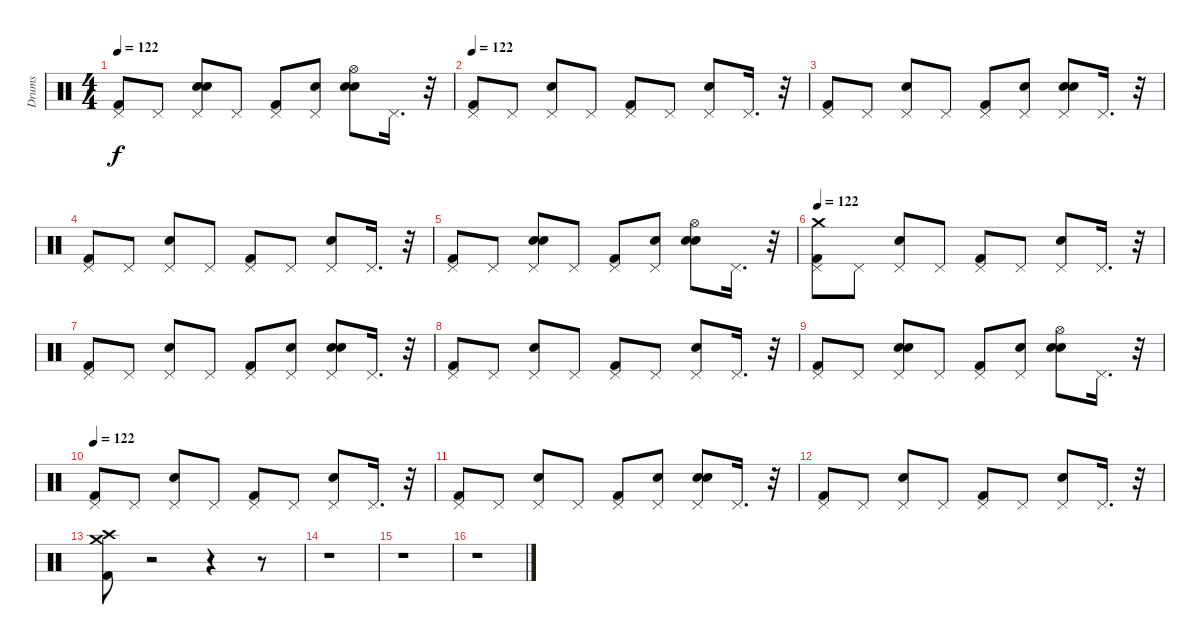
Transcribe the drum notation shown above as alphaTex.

\track ("Drums" "Drums") {instrument percussion}
\staff {score}
\articulation defaults
\ts (4 4)
\tempo 122
\clef neutral
\ks c
("Kick (hit) 2" "Pedal Hi-Hat (hit)").8{dy f} "Pedal Hi-Hat (hit)".8 ("Snare (hit) 2" "Hand Clap (hit)" "Pedal Hi-Hat (hit)").8 "Pedal Hi-Hat (hit)".8 ("Kick (hit) 2" "Pedal Hi-Hat (hit)").8 ("Hand Clap (hit)" "Pedal Hi-Hat (hit)").8 ("Hand Clap (hit)" "Snare (hit) 2" "Hi-Hat (open)").8 "Pedal Hi-Hat (hit)".16{d} r.32 |
\tempo 122
("Kick (hit) 2" "Pedal Hi-Hat (hit)").8 "Pedal Hi-Hat (hit)".8 ("Snare (hit) 2" "Pedal Hi-Hat (hit)").8 "Pedal Hi-Hat (hit)".8 ("Kick (hit) 2" "Pedal Hi-Hat (hit)").8 "Pedal Hi-Hat (hit)".8 ("Snare (hit) 2" "Pedal Hi-Hat (hit)").8 "Pedal Hi-Hat (hit)".16{d} r.32 |
("Kick (hit) 2" "Pedal Hi-Hat (hit)").8 "Pedal Hi-Hat (hit)".8 ("Snare (hit) 2" "Pedal Hi-Hat (hit)").8 "Pedal Hi-Hat (hit)".8 ("Kick (hit) 2" "Pedal Hi-Hat (hit)").8 ("Hand Clap (hit)" "Pedal Hi-Hat (hit)").8 ("Snare (hit) 2" "Hand Clap (hit)" "Pedal Hi-Hat (hit)").8 "Pedal Hi-Hat (hit)".16{d} r.32 |
("Kick (hit) 2" "Pedal Hi-Hat (hit)").8 "Pedal Hi-Hat (hit)".8 ("Snare (hit) 2" "Pedal Hi-Hat (hit)").8 "Pedal Hi-Hat (hit)".8 ("Kick (hit) 2" "Pedal Hi-Hat (hit)").8 "Pedal Hi-Hat (hit)".8 ("Snare (hit) 2" "Pedal Hi-Hat (hit)").8 "Pedal Hi-Hat (hit)".16{d} r.32 |
("Kick (hit) 2" "Pedal Hi-Hat (hit)").8 "Pedal Hi-Hat (hit)".8 ("Snare (hit) 2" "Hand Clap (hit)" "Pedal Hi-Hat (hit)").8 "Pedal Hi-Hat (hit)".8 ("Kick (hit) 2" "Pedal Hi-Hat (hit)").8 ("Hand Clap (hit)" "Pedal Hi-Hat (hit)").8 ("Hand Clap (hit)" "Snare (hit) 2" "Hi-Hat (open)").8 "Pedal Hi-Hat (hit)".16{d} r.32 |
\tempo 122
("Kick (hit) 2" "Pedal Hi-Hat (hit)" "Crash medium (hit)").8 "Pedal Hi-Hat (hit)".8 ("Snare (hit) 2" "Pedal Hi-Hat (hit)").8 "Pedal Hi-Hat (hit)".8 ("Kick (hit) 2" "Pedal Hi-Hat (hit)").8 "Pedal Hi-Hat (hit)".8 ("Snare (hit) 2" "Pedal Hi-Hat (hit)").8 "Pedal Hi-Hat (hit)".16{d} r.32 |
("Kick (hit) 2" "Pedal Hi-Hat (hit)").8 "Pedal Hi-Hat (hit)".8 ("Snare (hit) 2" "Pedal Hi-Hat (hit)").8 "Pedal Hi-Hat (hit)".8 ("Kick (hit) 2" "Pedal Hi-Hat (hit)").8 ("Hand Clap (hit)" "Pedal Hi-Hat (hit)").8 ("Snare (hit) 2" "Hand Clap (hit)" "Pedal Hi-Hat (hit)").8 "Pedal Hi-Hat (hit)".16{d} r.32 |
("Kick (hit) 2" "Pedal Hi-Hat (hit)").8 "Pedal Hi-Hat (hit)".8 ("Snare (hit) 2" "Pedal Hi-Hat (hit)").8 "Pedal Hi-Hat (hit)".8 ("Kick (hit) 2" "Pedal Hi-Hat (hit)").8 "Pedal Hi-Hat (hit)".8 ("Snare (hit) 2" "Pedal Hi-Hat (hit)").8 "Pedal Hi-Hat (hit)".16{d} r.32 |
("Kick (hit) 2" "Pedal Hi-Hat (hit)").8 "Pedal Hi-Hat (hit)".8 ("Snare (hit) 2" "Hand Clap (hit)" "Pedal Hi-Hat (hit)").8 "Pedal Hi-Hat (hit)".8 ("Kick (hit) 2" "Pedal Hi-Hat (hit)").8 ("Hand Clap (hit)" "Pedal Hi-Hat (hit)").8 ("Hand Clap (hit)" "Snare (hit) 2" "Hi-Hat (open)").8 "Pedal Hi-Hat (hit)".16{d} r.32 |
\tempo 122
("Kick (hit) 2" "Pedal Hi-Hat (hit)").8 "Pedal Hi-Hat (hit)".8 ("Snare (hit) 2" "Pedal Hi-Hat (hit)").8 "Pedal Hi-Hat (hit)".8 ("Kick (hit) 2" "Pedal Hi-Hat (hit)").8 "Pedal Hi-Hat (hit)".8 ("Snare (hit) 2" "Pedal Hi-Hat (hit)").8 "Pedal Hi-Hat (hit)".16{d} r.32 |
("Kick (hit) 2" "Pedal Hi-Hat (hit)").8 "Pedal Hi-Hat (hit)".8 ("Snare (hit) 2" "Pedal Hi-Hat (hit)").8 "Pedal Hi-Hat (hit)".8 ("Kick (hit) 2" "Pedal Hi-Hat (hit)").8 ("Hand Clap (hit)" "Pedal Hi-Hat (hit)").8 ("Snare (hit) 2" "Hand Clap (hit)" "Pedal Hi-Hat (hit)").8 "Pedal Hi-Hat (hit)".16{d} r.32 |
("Kick (hit) 2" "Pedal Hi-Hat (hit)").8 "Pedal Hi-Hat (hit)".8 ("Snare (hit) 2" "Pedal Hi-Hat (hit)").8 "Pedal Hi-Hat (hit)".8 ("Kick (hit) 2" "Pedal Hi-Hat (hit)").8 "Pedal Hi-Hat (hit)".8 ("Snare (hit) 2" "Pedal Hi-Hat (hit)").8 "Pedal Hi-Hat (hit)".16{d} r.32 |
("Kick (hit) 2" "Crash high (hit)" "Crash medium (hit)").8 r.2 r.4 r.8 |
r.1 |
r.1 |
r.1
